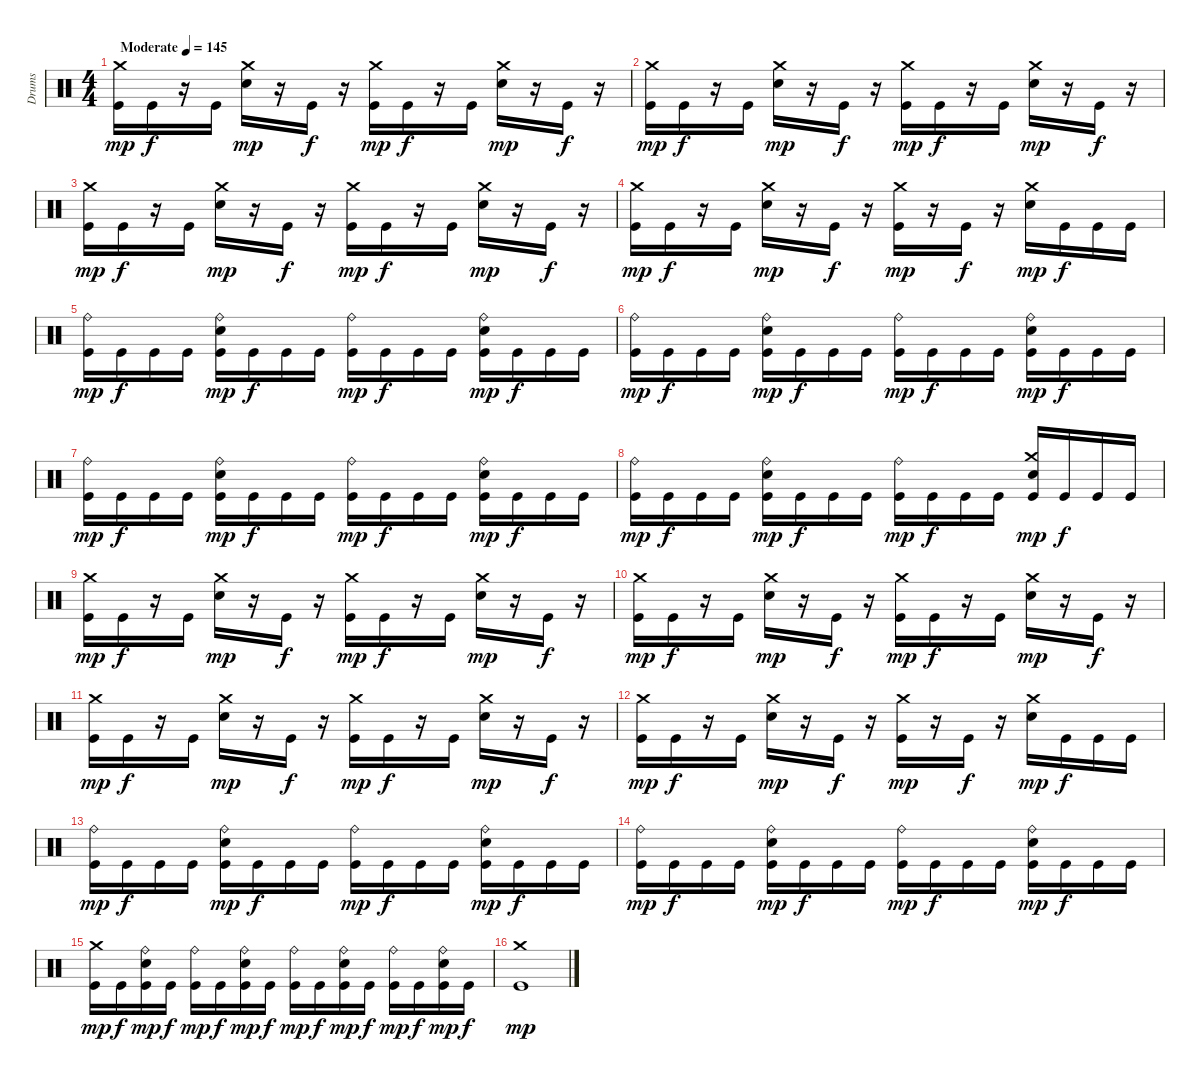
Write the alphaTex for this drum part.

\track ("Drums" "Drums") {instrument percussion}
\staff {score}
\articulation defaults
\ts (4 4)
\tempo (145 "Moderate")
\clef neutral
\ks c
("Kick (hit)" "Crash medium (hit)").16{dy mp} "Kick (hit)".16{dy f} r.16 "Kick (hit)".16 ("Snare (hit) 2" "Crash medium (hit)").16{dy mp} r.16 "Kick (hit)".16{dy f} r.16 ("Kick (hit)" "Crash medium (hit)").16{dy mp} "Kick (hit)".16{dy f} r.16 "Kick (hit)".16 ("Snare (hit) 2" "Crash medium (hit)").16{dy mp} r.16 "Kick (hit)".16{dy f} r.16 |
("Kick (hit)" "Crash medium (hit)").16{dy mp} "Kick (hit)".16{dy f} r.16 "Kick (hit)".16 ("Snare (hit) 2" "Crash medium (hit)").16{dy mp} r.16 "Kick (hit)".16{dy f} r.16 ("Kick (hit)" "Crash medium (hit)").16{dy mp} "Kick (hit)".16{dy f} r.16 "Kick (hit)".16 ("Snare (hit) 2" "Crash medium (hit)").16{dy mp} r.16 "Kick (hit)".16{dy f} r.16 |
("Kick (hit)" "Crash medium (hit)").16{dy mp} "Kick (hit)".16{dy f} r.16 "Kick (hit)".16 ("Snare (hit) 2" "Crash medium (hit)").16{dy mp} r.16 "Kick (hit)".16{dy f} r.16 ("Kick (hit)" "Crash medium (hit)").16{dy mp} "Kick (hit)".16{dy f} r.16 "Kick (hit)".16 ("Snare (hit) 2" "Crash medium (hit)").16{dy mp} r.16 "Kick (hit)".16{dy f} r.16 |
("Kick (hit)" "Crash medium (hit)").16{dy mp} "Kick (hit)".16{dy f} r.16 "Kick (hit)".16 ("Snare (hit) 2" "Crash medium (hit)").16{dy mp} r.16 "Kick (hit)".16{dy f} r.16 ("Kick (hit)" "Crash medium (hit)").16{dy mp} r.16 "Kick (hit)".16{dy f} r.16 ("Snare (hit) 2" "Crash medium (hit)").16{dy mp} "Kick (hit)".16{dy f} "Kick (hit)".16 "Kick (hit)".16 |
("Kick (hit)" "Ride (bell)").16{dy mp} "Kick (hit)".16{dy f} "Kick (hit)".16 "Kick (hit)".16 ("Kick (hit)" "Snare (hit) 2" "Ride (bell)").16{dy mp} "Kick (hit)".16{dy f} "Kick (hit)".16 "Kick (hit)".16 ("Kick (hit)" "Ride (bell)").16{dy mp} "Kick (hit)".16{dy f} "Kick (hit)".16 "Kick (hit)".16 ("Kick (hit)" "Snare (hit) 2" "Ride (bell)").16{dy mp} "Kick (hit)".16{dy f} "Kick (hit)".16 "Kick (hit)".16 |
("Kick (hit)" "Ride (bell)").16{dy mp} "Kick (hit)".16{dy f} "Kick (hit)".16 "Kick (hit)".16 ("Kick (hit)" "Snare (hit) 2" "Ride (bell)").16{dy mp} "Kick (hit)".16{dy f} "Kick (hit)".16 "Kick (hit)".16 ("Kick (hit)" "Ride (bell)").16{dy mp} "Kick (hit)".16{dy f} "Kick (hit)".16 "Kick (hit)".16 ("Kick (hit)" "Snare (hit) 2" "Ride (bell)").16{dy mp} "Kick (hit)".16{dy f} "Kick (hit)".16 "Kick (hit)".16 |
("Kick (hit)" "Ride (bell)").16{dy mp} "Kick (hit)".16{dy f} "Kick (hit)".16 "Kick (hit)".16 ("Kick (hit)" "Snare (hit) 2" "Ride (bell)").16{dy mp} "Kick (hit)".16{dy f} "Kick (hit)".16 "Kick (hit)".16 ("Kick (hit)" "Ride (bell)").16{dy mp} "Kick (hit)".16{dy f} "Kick (hit)".16 "Kick (hit)".16 ("Kick (hit)" "Snare (hit) 2" "Ride (bell)").16{dy mp} "Kick (hit)".16{dy f} "Kick (hit)".16 "Kick (hit)".16 |
("Kick (hit)" "Ride (bell)").16{dy mp} "Kick (hit)".16{dy f} "Kick (hit)".16 "Kick (hit)".16 ("Kick (hit)" "Snare (hit) 2" "Ride (bell)").16{dy mp} "Kick (hit)".16{dy f} "Kick (hit)".16 "Kick (hit)".16 ("Kick (hit)" "Ride (bell)").16{dy mp} "Kick (hit)".16{dy f} "Kick (hit)".16 "Kick (hit)".16 ("Kick (hit)" "Snare (hit) 2" "Crash medium (hit)").16{dy mp} "Kick (hit)".16{dy f} "Kick (hit)".16 "Kick (hit)".16 |
("Kick (hit)" "Crash medium (hit)").16{dy mp} "Kick (hit)".16{dy f} r.16 "Kick (hit)".16 ("Snare (hit) 2" "Crash medium (hit)").16{dy mp} r.16 "Kick (hit)".16{dy f} r.16 ("Kick (hit)" "Crash medium (hit)").16{dy mp} "Kick (hit)".16{dy f} r.16 "Kick (hit)".16 ("Snare (hit) 2" "Crash medium (hit)").16{dy mp} r.16 "Kick (hit)".16{dy f} r.16 |
("Kick (hit)" "Crash medium (hit)").16{dy mp} "Kick (hit)".16{dy f} r.16 "Kick (hit)".16 ("Snare (hit) 2" "Crash medium (hit)").16{dy mp} r.16 "Kick (hit)".16{dy f} r.16 ("Kick (hit)" "Crash medium (hit)").16{dy mp} "Kick (hit)".16{dy f} r.16 "Kick (hit)".16 ("Snare (hit) 2" "Crash medium (hit)").16{dy mp} r.16 "Kick (hit)".16{dy f} r.16 |
("Kick (hit)" "Crash medium (hit)").16{dy mp} "Kick (hit)".16{dy f} r.16 "Kick (hit)".16 ("Snare (hit) 2" "Crash medium (hit)").16{dy mp} r.16 "Kick (hit)".16{dy f} r.16 ("Kick (hit)" "Crash medium (hit)").16{dy mp} "Kick (hit)".16{dy f} r.16 "Kick (hit)".16 ("Snare (hit) 2" "Crash medium (hit)").16{dy mp} r.16 "Kick (hit)".16{dy f} r.16 |
("Kick (hit)" "Crash medium (hit)").16{dy mp} "Kick (hit)".16{dy f} r.16 "Kick (hit)".16 ("Snare (hit) 2" "Crash medium (hit)").16{dy mp} r.16 "Kick (hit)".16{dy f} r.16 ("Kick (hit)" "Crash medium (hit)").16{dy mp} r.16 "Kick (hit)".16{dy f} r.16 ("Snare (hit) 2" "Crash medium (hit)").16{dy mp} "Kick (hit)".16{dy f} "Kick (hit)".16 "Kick (hit)".16 |
("Kick (hit)" "Ride (bell)").16{dy mp} "Kick (hit)".16{dy f} "Kick (hit)".16 "Kick (hit)".16 ("Kick (hit)" "Snare (hit) 2" "Ride (bell)").16{dy mp} "Kick (hit)".16{dy f} "Kick (hit)".16 "Kick (hit)".16 ("Kick (hit)" "Ride (bell)").16{dy mp} "Kick (hit)".16{dy f} "Kick (hit)".16 "Kick (hit)".16 ("Kick (hit)" "Snare (hit) 2" "Ride (bell)").16{dy mp} "Kick (hit)".16{dy f} "Kick (hit)".16 "Kick (hit)".16 |
("Kick (hit)" "Ride (bell)").16{dy mp} "Kick (hit)".16{dy f} "Kick (hit)".16 "Kick (hit)".16 ("Kick (hit)" "Snare (hit) 2" "Ride (bell)").16{dy mp} "Kick (hit)".16{dy f} "Kick (hit)".16 "Kick (hit)".16 ("Kick (hit)" "Ride (bell)").16{dy mp} "Kick (hit)".16{dy f} "Kick (hit)".16 "Kick (hit)".16 ("Kick (hit)" "Snare (hit) 2" "Ride (bell)").16{dy mp} "Kick (hit)".16{dy f} "Kick (hit)".16 "Kick (hit)".16 |
("Kick (hit)" "Crash medium (hit)").16{dy mp} "Kick (hit)".16{dy f} ("Kick (hit)" "Snare (hit) 2" "Ride (bell)").16{dy mp} "Kick (hit)".16{dy f} ("Kick (hit)" "Ride (bell)").16{dy mp} "Kick (hit)".16{dy f} ("Kick (hit)" "Snare (hit) 2" "Ride (bell)").16{dy mp} "Kick (hit)".16{dy f} ("Kick (hit)" "Ride (bell)").16{dy mp} "Kick (hit)".16{dy f} ("Kick (hit)" "Snare (hit) 2" "Ride (bell)").16{dy mp} "Kick (hit)".16{dy f} ("Kick (hit)" "Ride (bell)").16{dy mp} "Kick (hit)".16{dy f} ("Kick (hit)" "Snare (hit) 2" "Ride (bell)").16{dy mp} "Kick (hit)".16{dy f} |
("Kick (hit)" "Crash medium (hit)").1{dy mp}
